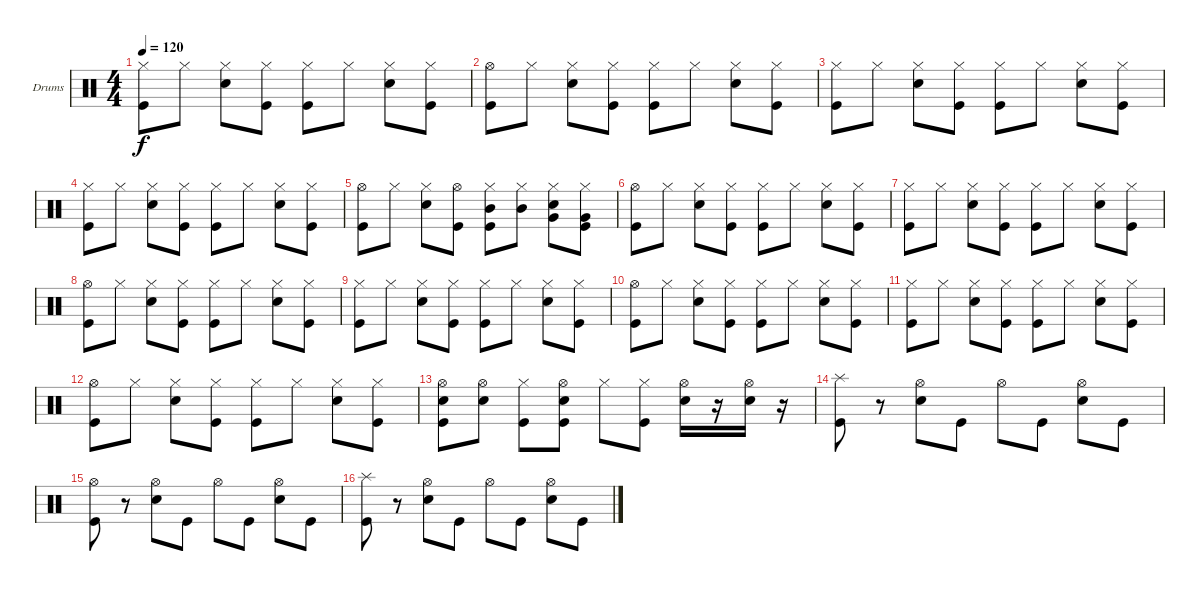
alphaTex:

\defaultSystemsLayout 4
\bracketExtendMode groupsimilarinstruments
\firstSystemTrackNameOrientation horizontal
\otherSystemsTrackNameOrientation horizontal
\track ("Drumkit" "Drums") {instrument percussion}
\staff {score}
\articulation defaults
\ts (4 4)
\tempo 120
\clef neutral
\ks c
("Kick (hit)" "Hi-Hat (closed)").8{dy f} "Hi-Hat (closed)".8 ("Snare (hit) 2" "Hi-Hat (closed)").8 ("Kick (hit)" "Hi-Hat (closed)").8 ("Kick (hit)" "Hi-Hat (closed)").8 "Hi-Hat (closed)".8 ("Snare (hit) 2" "Hi-Hat (closed)").8 ("Kick (hit)" "Hi-Hat (closed)").8 |
("Kick (hit)" "Hi-Hat (open)").8 "Hi-Hat (closed)".8 ("Snare (hit) 2" "Hi-Hat (closed)").8 ("Kick (hit)" "Hi-Hat (closed)").8 ("Kick (hit)" "Hi-Hat (closed)").8 "Hi-Hat (closed)".8 ("Snare (hit) 2" "Hi-Hat (closed)").8 ("Kick (hit)" "Hi-Hat (closed)").8 |
("Kick (hit)" "Hi-Hat (closed)").8 "Hi-Hat (closed)".8 ("Snare (hit) 2" "Hi-Hat (closed)").8 ("Kick (hit)" "Hi-Hat (closed)").8 ("Kick (hit)" "Hi-Hat (closed)").8 "Hi-Hat (closed)".8 ("Snare (hit) 2" "Hi-Hat (closed)").8 ("Kick (hit)" "Hi-Hat (closed)").8 |
("Kick (hit)" "Hi-Hat (closed)").8 "Hi-Hat (closed)".8 ("Snare (hit) 2" "Hi-Hat (closed)").8 ("Kick (hit)" "Hi-Hat (closed)").8 ("Kick (hit)" "Hi-Hat (closed)").8 "Hi-Hat (closed)".8 ("Snare (hit) 2" "Hi-Hat (closed)").8 ("Kick (hit)" "Hi-Hat (closed)").8 |
("Kick (hit)" "Hi-Hat (open)").8 "Hi-Hat (closed)".8 ("Snare (hit) 2" "Hi-Hat (closed)").8 ("Kick (hit)" "Hi-Hat (open)").8 ("Kick (hit)" "Hi-Hat (closed)" "Mid Tom (hit)").8 ("Hi-Hat (closed)" "Mid Tom (hit)").8 ("Snare (hit) 2" "Hi-Hat (closed)" "Very Low Tom (hit)").8 ("Kick (hit)" "Hi-Hat (closed)" "Very Low Tom (hit)").8 |
("Kick (hit)" "Hi-Hat (open)").8 "Hi-Hat (closed)".8 ("Snare (hit) 2" "Hi-Hat (closed)").8 ("Kick (hit)" "Hi-Hat (closed)").8 ("Kick (hit)" "Hi-Hat (closed)").8 "Hi-Hat (closed)".8 ("Snare (hit) 2" "Hi-Hat (closed)").8 ("Kick (hit)" "Hi-Hat (closed)").8 |
("Kick (hit)" "Hi-Hat (closed)").8 "Hi-Hat (closed)".8 ("Snare (hit) 2" "Hi-Hat (closed)").8 ("Kick (hit)" "Hi-Hat (closed)").8 ("Kick (hit)" "Hi-Hat (closed)").8 "Hi-Hat (closed)".8 ("Snare (hit) 2" "Hi-Hat (closed)").8 ("Kick (hit)" "Hi-Hat (closed)").8 |
("Kick (hit)" "Hi-Hat (open)").8 "Hi-Hat (closed)".8 ("Snare (hit) 2" "Hi-Hat (closed)").8 ("Kick (hit)" "Hi-Hat (closed)").8 ("Kick (hit)" "Hi-Hat (closed)").8 "Hi-Hat (closed)".8 ("Snare (hit) 2" "Hi-Hat (closed)").8 ("Kick (hit)" "Hi-Hat (closed)").8 |
("Kick (hit)" "Hi-Hat (closed)").8 "Hi-Hat (closed)".8 ("Snare (hit) 2" "Hi-Hat (closed)").8 ("Kick (hit)" "Hi-Hat (closed)").8 ("Kick (hit)" "Hi-Hat (closed)").8 "Hi-Hat (closed)".8 ("Snare (hit) 2" "Hi-Hat (closed)").8 ("Kick (hit)" "Hi-Hat (closed)").8 |
("Kick (hit)" "Hi-Hat (open)").8 "Hi-Hat (closed)".8 ("Snare (hit) 2" "Hi-Hat (closed)").8 ("Kick (hit)" "Hi-Hat (closed)").8 ("Kick (hit)" "Hi-Hat (closed)").8 "Hi-Hat (closed)".8 ("Snare (hit) 2" "Hi-Hat (closed)").8 ("Kick (hit)" "Hi-Hat (closed)").8 |
("Kick (hit)" "Hi-Hat (closed)").8 "Hi-Hat (closed)".8 ("Snare (hit) 2" "Hi-Hat (closed)").8 ("Kick (hit)" "Hi-Hat (closed)").8 ("Kick (hit)" "Hi-Hat (closed)").8 "Hi-Hat (closed)".8 ("Snare (hit) 2" "Hi-Hat (closed)").8 ("Kick (hit)" "Hi-Hat (closed)").8 |
("Kick (hit)" "Hi-Hat (open)").8 "Hi-Hat (closed)".8 ("Snare (hit) 2" "Hi-Hat (closed)").8 ("Kick (hit)" "Hi-Hat (closed)").8 ("Kick (hit)" "Hi-Hat (closed)").8 "Hi-Hat (closed)".8 ("Snare (hit) 2" "Hi-Hat (closed)").8 ("Kick (hit)" "Hi-Hat (closed)").8 |
("Kick (hit)" "Hi-Hat (open)" "Snare (hit) 2").8 ("Hi-Hat (open)" "Snare (hit) 2").8 ("Hi-Hat (closed)" "Kick (hit)").8 ("Kick (hit)" "Hi-Hat (open)" "Snare (hit) 2").8 "Hi-Hat (closed)".8 ("Kick (hit)" "Hi-Hat (closed)").8 ("Snare (hit) 2" "Hi-Hat (open)").16 r.16 ("Snare (hit) 2" "Hi-Hat (open)").16 r.16 |
("Kick (hit)" "Splash (hit)").8 r.8 ("Snare (hit) 2" "Hi-Hat (open)").8 "Kick (hit)".8 "Hi-Hat (open)".8 "Kick (hit)".8 ("Snare (hit) 2" "Hi-Hat (open)").8 "Kick (hit)".8 |
("Kick (hit)" "Hi-Hat (open)").8 r.8 ("Snare (hit) 2" "Hi-Hat (open)").8 "Kick (hit)".8 "Hi-Hat (open)".8 "Kick (hit)".8 ("Snare (hit) 2" "Hi-Hat (open)").8 "Kick (hit)".8 |
("Kick (hit)" "Splash (hit)").8 r.8 ("Snare (hit) 2" "Hi-Hat (open)").8 "Kick (hit)".8 "Hi-Hat (open)".8 "Kick (hit)".8 ("Snare (hit) 2" "Hi-Hat (open)").8 "Kick (hit)".8
